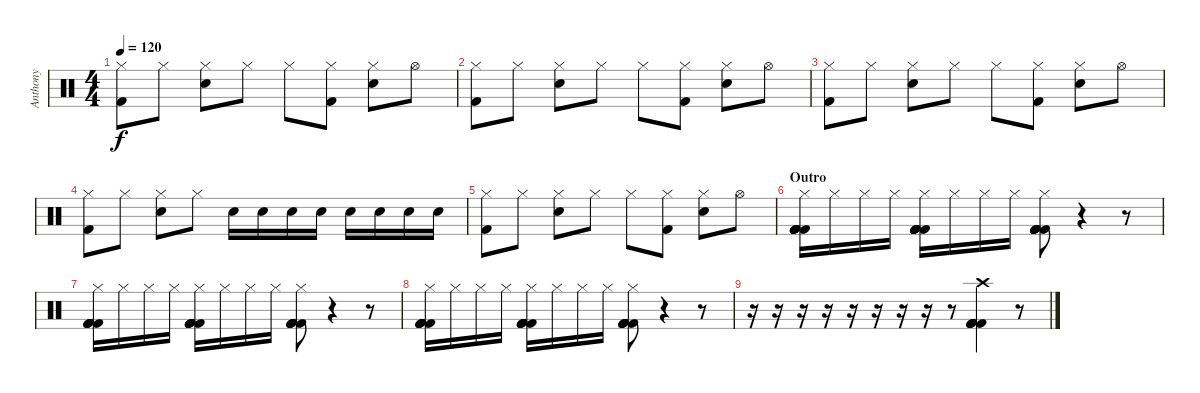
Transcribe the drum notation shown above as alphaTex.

\track ("Anthony" "Anthony") {instrument percussion}
\staff {score}
\articulation defaults
\ts (4 4)
\tempo 120
\clef neutral
\ks c
("Hi-Hat (closed)" "Kick (hit) 2").8{dy f} "Hi-Hat (closed)".8 ("Hi-Hat (closed)" "Snare (hit) 2").8 "Hi-Hat (closed)".8 "Hi-Hat (closed)".8 ("Hi-Hat (closed)" "Kick (hit) 2").8 ("Hi-Hat (closed)" "Snare (hit) 2").8 "Hi-Hat (open)".8 |
("Hi-Hat (closed)" "Kick (hit) 2").8 "Hi-Hat (closed)".8 ("Hi-Hat (closed)" "Snare (hit) 2").8 "Hi-Hat (closed)".8 "Hi-Hat (closed)".8 ("Hi-Hat (closed)" "Kick (hit) 2").8 ("Hi-Hat (closed)" "Snare (hit) 2").8 "Hi-Hat (open)".8 |
("Hi-Hat (closed)" "Kick (hit) 2").8 "Hi-Hat (closed)".8 ("Hi-Hat (closed)" "Snare (hit) 2").8 "Hi-Hat (closed)".8 "Hi-Hat (closed)".8 ("Hi-Hat (closed)" "Kick (hit) 2").8 ("Hi-Hat (closed)" "Snare (hit) 2").8 "Hi-Hat (open)".8 |
("Hi-Hat (closed)" "Kick (hit) 2").8 "Hi-Hat (closed)".8 ("Hi-Hat (closed)" "Snare (hit) 2").8 "Hi-Hat (closed)".8 "Snare (hit) 2".16 "Snare (hit) 2".16 "Snare (hit) 2".16 "Snare (hit) 2".16 "Snare (hit) 2".16 "Snare (hit) 2".16 "Snare (hit) 2".16 "Snare (hit) 2".16 |
("Hi-Hat (closed)" "Kick (hit) 2").8 "Hi-Hat (closed)".8 ("Hi-Hat (closed)" "Snare (hit) 2").8 "Hi-Hat (closed)".8 "Hi-Hat (closed)".8 ("Hi-Hat (closed)" "Kick (hit) 2").8 ("Hi-Hat (closed)" "Snare (hit) 2").8 "Hi-Hat (open)".8 |
\section ("" "Outro")
("Hi-Hat (closed)" "Kick (hit) 2" "Kick (hit) 2" "Kick (hit) 2" "Kick (hit) 2" "Kick (hit) 2").16 "Hi-Hat (closed)".16 "Hi-Hat (closed)".16 "Hi-Hat (closed)".16 ("Hi-Hat (closed)" "Kick (hit) 2" "Kick (hit) 2" "Kick (hit) 2" "Kick (hit) 2" "Kick (hit) 2").16 "Hi-Hat (closed)".16 "Hi-Hat (closed)".16 "Hi-Hat (closed)".16 ("Hi-Hat (closed)" "Kick (hit) 2" "Kick (hit) 2" "Kick (hit) 2" "Kick (hit) 2" "Kick (hit) 2").8 r.4 r.8 |
("Hi-Hat (closed)" "Kick (hit) 2" "Kick (hit) 2" "Kick (hit) 2" "Kick (hit) 2" "Kick (hit) 2").16 "Hi-Hat (closed)".16 "Hi-Hat (closed)".16 "Hi-Hat (closed)".16 ("Hi-Hat (closed)" "Kick (hit) 2" "Kick (hit) 2" "Kick (hit) 2" "Kick (hit) 2" "Kick (hit) 2").16 "Hi-Hat (closed)".16 "Hi-Hat (closed)".16 "Hi-Hat (closed)".16 ("Hi-Hat (closed)" "Kick (hit) 2" "Kick (hit) 2" "Kick (hit) 2" "Kick (hit) 2" "Kick (hit) 2").8 r.4 r.8 |
("Hi-Hat (closed)" "Kick (hit) 2" "Kick (hit) 2" "Kick (hit) 2" "Kick (hit) 2" "Kick (hit) 2").16 "Hi-Hat (closed)".16 "Hi-Hat (closed)".16 "Hi-Hat (closed)".16 ("Hi-Hat (closed)" "Kick (hit) 2" "Kick (hit) 2" "Kick (hit) 2" "Kick (hit) 2" "Kick (hit) 2").16 "Hi-Hat (closed)".16 "Hi-Hat (closed)".16 "Hi-Hat (closed)".16 ("Hi-Hat (closed)" "Kick (hit) 2" "Kick (hit) 2" "Kick (hit) 2" "Kick (hit) 2" "Kick (hit) 2").8 r.4 r.8 |
r.16 r.16 r.16 r.16 r.16 r.16 r.16 r.16 r.8 ("Crash high (hit)" "Kick (hit) 2" "Kick (hit) 2" "Kick (hit) 2" "Kick (hit) 2" "Kick (hit) 2").4 r.8
